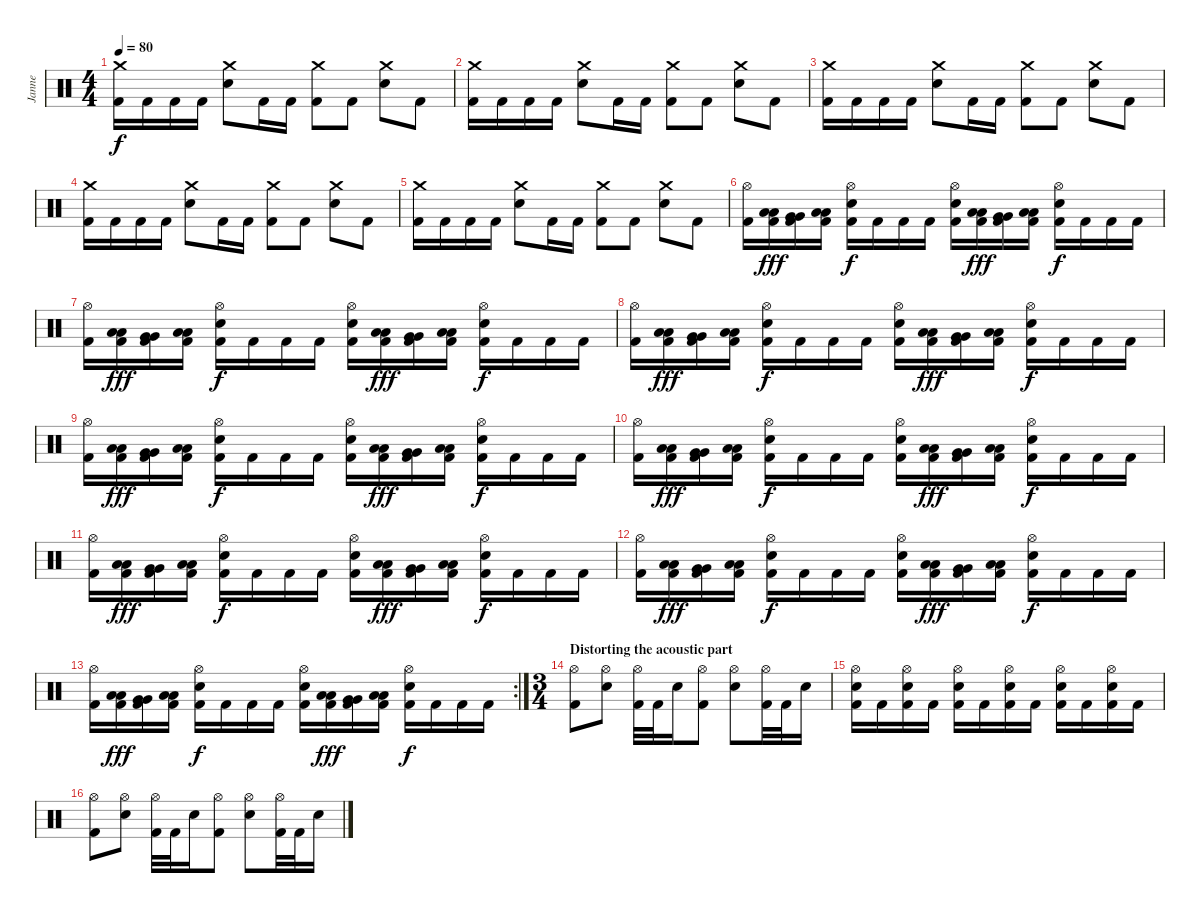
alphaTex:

\track ("Janne" "Janne") {instrument percussion}
\staff {score}
\articulation defaults
\ts (4 4)
\tempo 80
\clef neutral
\ks c
("Crash medium (hit)" "Kick (hit) 2").16{dy f} "Kick (hit) 2".16 "Kick (hit) 2".16 "Kick (hit) 2".16 ("Crash medium (hit)" "Electric Snare (hit)").8 "Kick (hit) 2".16 "Kick (hit) 2".16 ("Crash medium (hit)" "Kick (hit) 2").8 "Kick (hit) 2".8 ("Crash medium (hit)" "Electric Snare (hit)").8 "Kick (hit) 2".8 |
("Crash medium (hit)" "Kick (hit) 2").16 "Kick (hit) 2".16 "Kick (hit) 2".16 "Kick (hit) 2".16 ("Crash medium (hit)" "Electric Snare (hit)").8 "Kick (hit) 2".16 "Kick (hit) 2".16 ("Crash medium (hit)" "Kick (hit) 2").8 "Kick (hit) 2".8 ("Crash medium (hit)" "Electric Snare (hit)").8 "Kick (hit) 2".8 |
("Crash medium (hit)" "Kick (hit) 2").16 "Kick (hit) 2".16 "Kick (hit) 2".16 "Kick (hit) 2".16 ("Crash medium (hit)" "Electric Snare (hit)").8 "Kick (hit) 2".16 "Kick (hit) 2".16 ("Crash medium (hit)" "Kick (hit) 2").8 "Kick (hit) 2".8 ("Crash medium (hit)" "Electric Snare (hit)").8 "Kick (hit) 2".8 |
("Crash medium (hit)" "Kick (hit) 2").16 "Kick (hit) 2".16 "Kick (hit) 2".16 "Kick (hit) 2".16 ("Crash medium (hit)" "Electric Snare (hit)").8 "Kick (hit) 2".16 "Kick (hit) 2".16 ("Crash medium (hit)" "Kick (hit) 2").8 "Kick (hit) 2".8 ("Crash medium (hit)" "Electric Snare (hit)").8 "Kick (hit) 2".8 |
("Crash medium (hit)" "Kick (hit) 2").16 "Kick (hit) 2".16 "Kick (hit) 2".16 "Kick (hit) 2".16 ("Crash medium (hit)" "Electric Snare (hit)").8 "Kick (hit) 2".16 "Kick (hit) 2".16 ("Crash medium (hit)" "Kick (hit) 2").8 "Kick (hit) 2".8 ("Crash medium (hit)" "Electric Snare (hit)").8 "Kick (hit) 2".8 |
("Hi-Hat (open)" "Kick (hit) 2").16 ("Low Tom (hit)" "Low Tom (hit)" "Kick (hit) 2").16{dy fff} ("Very Low Tom (hit)" "Very Low Tom (hit)" "Kick (hit) 2").16 ("Low Floor Tom (hit)" "Low Floor Tom (hit)" "Kick (hit) 2").16 ("Hi-Hat (open)" "Electric Snare (hit)" "Kick (hit) 2").16{dy f} "Kick (hit) 2".16 "Kick (hit) 2".16 "Kick (hit) 2".16 ("Hi-Hat (open)" "Electric Snare (hit)" "Kick (hit) 2").16 ("Low Tom (hit)" "Low Tom (hit)" "Kick (hit) 2").16{dy fff} ("Very Low Tom (hit)" "Very Low Tom (hit)" "Kick (hit) 2").16 ("Low Floor Tom (hit)" "Low Floor Tom (hit)" "Kick (hit) 2").16 ("Hi-Hat (open)" "Electric Snare (hit)" "Kick (hit) 2").16{dy f} "Kick (hit) 2".16 "Kick (hit) 2".16 "Kick (hit) 2".16 |
("Hi-Hat (open)" "Kick (hit) 2").16 ("Low Tom (hit)" "Low Tom (hit)" "Kick (hit) 2").16{dy fff} ("Very Low Tom (hit)" "Very Low Tom (hit)" "Kick (hit) 2").16 ("Low Floor Tom (hit)" "Low Floor Tom (hit)" "Kick (hit) 2").16 ("Hi-Hat (open)" "Electric Snare (hit)" "Kick (hit) 2").16{dy f} "Kick (hit) 2".16 "Kick (hit) 2".16 "Kick (hit) 2".16 ("Hi-Hat (open)" "Electric Snare (hit)" "Kick (hit) 2").16 ("Low Tom (hit)" "Low Tom (hit)" "Kick (hit) 2").16{dy fff} ("Very Low Tom (hit)" "Very Low Tom (hit)" "Kick (hit) 2").16 ("Low Floor Tom (hit)" "Low Floor Tom (hit)" "Kick (hit) 2").16 ("Hi-Hat (open)" "Electric Snare (hit)" "Kick (hit) 2").16{dy f} "Kick (hit) 2".16 "Kick (hit) 2".16 "Kick (hit) 2".16 |
("Hi-Hat (open)" "Kick (hit) 2").16 ("Low Tom (hit)" "Low Tom (hit)" "Kick (hit) 2").16{dy fff} ("Very Low Tom (hit)" "Very Low Tom (hit)" "Kick (hit) 2").16 ("Low Floor Tom (hit)" "Low Floor Tom (hit)" "Kick (hit) 2").16 ("Hi-Hat (open)" "Electric Snare (hit)" "Kick (hit) 2").16{dy f} "Kick (hit) 2".16 "Kick (hit) 2".16 "Kick (hit) 2".16 ("Hi-Hat (open)" "Electric Snare (hit)" "Kick (hit) 2").16 ("Low Tom (hit)" "Low Tom (hit)" "Kick (hit) 2").16{dy fff} ("Very Low Tom (hit)" "Very Low Tom (hit)" "Kick (hit) 2").16 ("Low Floor Tom (hit)" "Low Floor Tom (hit)" "Kick (hit) 2").16 ("Hi-Hat (open)" "Electric Snare (hit)" "Kick (hit) 2").16{dy f} "Kick (hit) 2".16 "Kick (hit) 2".16 "Kick (hit) 2".16 |
("Hi-Hat (open)" "Kick (hit) 2").16 ("Low Tom (hit)" "Low Tom (hit)" "Kick (hit) 2").16{dy fff} ("Very Low Tom (hit)" "Very Low Tom (hit)" "Kick (hit) 2").16 ("Low Floor Tom (hit)" "Low Floor Tom (hit)" "Kick (hit) 2").16 ("Hi-Hat (open)" "Electric Snare (hit)" "Kick (hit) 2").16{dy f} "Kick (hit) 2".16 "Kick (hit) 2".16 "Kick (hit) 2".16 ("Hi-Hat (open)" "Electric Snare (hit)" "Kick (hit) 2").16 ("Low Tom (hit)" "Low Tom (hit)" "Kick (hit) 2").16{dy fff} ("Very Low Tom (hit)" "Very Low Tom (hit)" "Kick (hit) 2").16 ("Low Floor Tom (hit)" "Low Floor Tom (hit)" "Kick (hit) 2").16 ("Hi-Hat (open)" "Electric Snare (hit)" "Kick (hit) 2").16{dy f} "Kick (hit) 2".16 "Kick (hit) 2".16 "Kick (hit) 2".16 |
("Hi-Hat (open)" "Kick (hit) 2").16 ("Low Tom (hit)" "Low Tom (hit)" "Kick (hit) 2").16{dy fff} ("Very Low Tom (hit)" "Very Low Tom (hit)" "Kick (hit) 2").16 ("Low Floor Tom (hit)" "Low Floor Tom (hit)" "Kick (hit) 2").16 ("Hi-Hat (open)" "Electric Snare (hit)" "Kick (hit) 2").16{dy f} "Kick (hit) 2".16 "Kick (hit) 2".16 "Kick (hit) 2".16 ("Hi-Hat (open)" "Electric Snare (hit)" "Kick (hit) 2").16 ("Low Tom (hit)" "Low Tom (hit)" "Kick (hit) 2").16{dy fff} ("Very Low Tom (hit)" "Very Low Tom (hit)" "Kick (hit) 2").16 ("Low Floor Tom (hit)" "Low Floor Tom (hit)" "Kick (hit) 2").16 ("Hi-Hat (open)" "Electric Snare (hit)" "Kick (hit) 2").16{dy f} "Kick (hit) 2".16 "Kick (hit) 2".16 "Kick (hit) 2".16 |
("Hi-Hat (open)" "Kick (hit) 2").16 ("Low Tom (hit)" "Low Tom (hit)" "Kick (hit) 2").16{dy fff} ("Very Low Tom (hit)" "Very Low Tom (hit)" "Kick (hit) 2").16 ("Low Floor Tom (hit)" "Low Floor Tom (hit)" "Kick (hit) 2").16 ("Hi-Hat (open)" "Electric Snare (hit)" "Kick (hit) 2").16{dy f} "Kick (hit) 2".16 "Kick (hit) 2".16 "Kick (hit) 2".16 ("Hi-Hat (open)" "Electric Snare (hit)" "Kick (hit) 2").16 ("Low Tom (hit)" "Low Tom (hit)" "Kick (hit) 2").16{dy fff} ("Very Low Tom (hit)" "Very Low Tom (hit)" "Kick (hit) 2").16 ("Low Floor Tom (hit)" "Low Floor Tom (hit)" "Kick (hit) 2").16 ("Hi-Hat (open)" "Electric Snare (hit)" "Kick (hit) 2").16{dy f} "Kick (hit) 2".16 "Kick (hit) 2".16 "Kick (hit) 2".16 |
("Hi-Hat (open)" "Kick (hit) 2").16 ("Low Tom (hit)" "Low Tom (hit)" "Kick (hit) 2").16{dy fff} ("Very Low Tom (hit)" "Very Low Tom (hit)" "Kick (hit) 2").16 ("Low Floor Tom (hit)" "Low Floor Tom (hit)" "Kick (hit) 2").16 ("Hi-Hat (open)" "Electric Snare (hit)" "Kick (hit) 2").16{dy f} "Kick (hit) 2".16 "Kick (hit) 2".16 "Kick (hit) 2".16 ("Hi-Hat (open)" "Electric Snare (hit)" "Kick (hit) 2").16 ("Low Tom (hit)" "Low Tom (hit)" "Kick (hit) 2").16{dy fff} ("Very Low Tom (hit)" "Very Low Tom (hit)" "Kick (hit) 2").16 ("Low Floor Tom (hit)" "Low Floor Tom (hit)" "Kick (hit) 2").16 ("Hi-Hat (open)" "Electric Snare (hit)" "Kick (hit) 2").16{dy f} "Kick (hit) 2".16 "Kick (hit) 2".16 "Kick (hit) 2".16 |
\rc 2
("Hi-Hat (open)" "Kick (hit) 2").16 ("Low Tom (hit)" "Low Tom (hit)" "Kick (hit) 2").16{dy fff} ("Very Low Tom (hit)" "Very Low Tom (hit)" "Kick (hit) 2").16 ("Low Floor Tom (hit)" "Low Floor Tom (hit)" "Kick (hit) 2").16 ("Hi-Hat (open)" "Electric Snare (hit)" "Kick (hit) 2").16{dy f} "Kick (hit) 2".16 "Kick (hit) 2".16 "Kick (hit) 2".16 ("Hi-Hat (open)" "Electric Snare (hit)" "Kick (hit) 2").16 ("Low Tom (hit)" "Low Tom (hit)" "Kick (hit) 2").16{dy fff} ("Very Low Tom (hit)" "Very Low Tom (hit)" "Kick (hit) 2").16 ("Low Floor Tom (hit)" "Low Floor Tom (hit)" "Kick (hit) 2").16 ("Hi-Hat (open)" "Electric Snare (hit)" "Kick (hit) 2").16{dy f} "Kick (hit) 2".16 "Kick (hit) 2".16 "Kick (hit) 2".16 |
\ts (3 4)
\section ("" "Distorting the acoustic part")
("Hi-Hat (open)" "Kick (hit) 2").8 ("Hi-Hat (open)" "Electric Snare (hit)").8 ("Hi-Hat (open)" "Kick (hit) 2").32 "Kick (hit) 2".32 "Electric Snare (hit)".16 ("Hi-Hat (open)" "Kick (hit) 2").8 ("Hi-Hat (open)" "Electric Snare (hit)").8 ("Hi-Hat (open)" "Kick (hit) 2").32 "Kick (hit) 2".32 "Electric Snare (hit)".16 |
("Hi-Hat (open)" "Electric Snare (hit)" "Kick (hit) 2").16 "Kick (hit) 2".16 ("Hi-Hat (open)" "Electric Snare (hit)" "Kick (hit) 2").16 "Kick (hit) 2".16 ("Hi-Hat (open)" "Electric Snare (hit)" "Kick (hit) 2").16 "Kick (hit) 2".16 ("Hi-Hat (open)" "Electric Snare (hit)" "Kick (hit) 2").16 "Kick (hit) 2".16 ("Hi-Hat (open)" "Electric Snare (hit)" "Kick (hit) 2").16 "Kick (hit) 2".16 ("Hi-Hat (open)" "Electric Snare (hit)" "Kick (hit) 2").16 "Kick (hit) 2".16 |
("Hi-Hat (open)" "Kick (hit) 2").8 ("Hi-Hat (open)" "Electric Snare (hit)").8 ("Hi-Hat (open)" "Kick (hit) 2").32 "Kick (hit) 2".32 "Electric Snare (hit)".16 ("Hi-Hat (open)" "Kick (hit) 2").8 ("Hi-Hat (open)" "Electric Snare (hit)").8 ("Hi-Hat (open)" "Kick (hit) 2").32 "Kick (hit) 2".32 "Electric Snare (hit)".16
